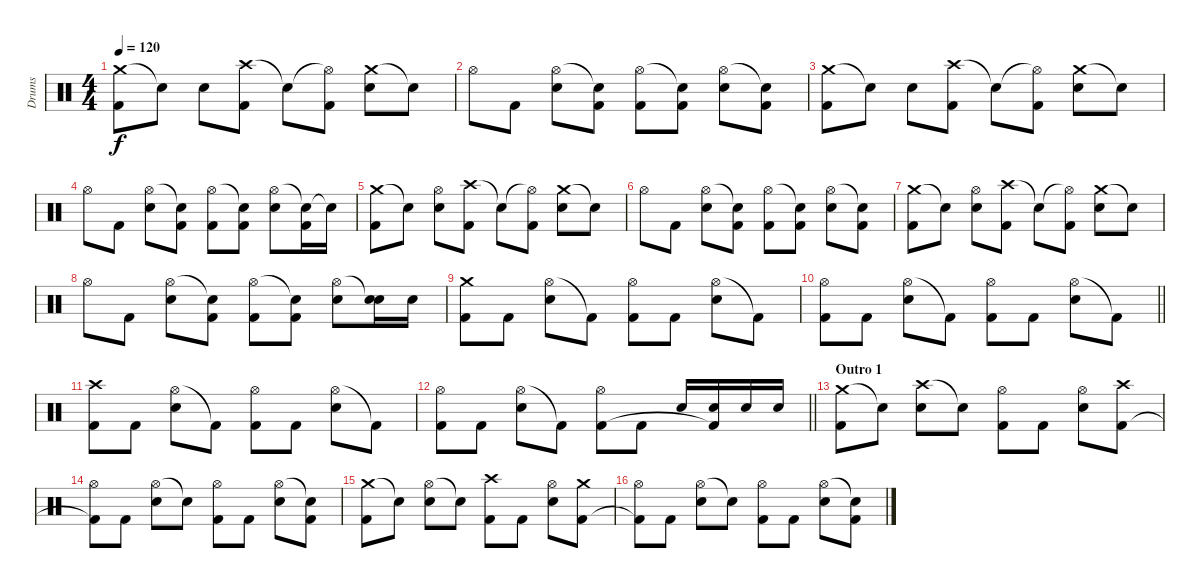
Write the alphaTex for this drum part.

\track ("Drums" "Drums") {instrument percussion}
\staff {score}
\articulation defaults
\ts (4 4)
\tempo 120
\clef neutral
\ks c
("Crash medium (hit)" "Kick (hit) 2").8{dy f} "Snare (hit)"{t}.8 "Snare (hit) 2".8 ("Crash high (hit)" "Kick (hit) 2").8 "Snare (hit)"{t}.8 ("Hi-Hat (open)"{t} "Kick (hit) 2").8 ("Crash medium (hit)" "Snare (hit) 2").8 "Snare (hit)"{t}.8 |
"Hi-Hat (open)".8 "Kick (hit) 2".8 ("Hi-Hat (open)" "Snare (hit) 2").8 ("Snare (hit)"{t} "Kick (hit) 2").8 ("Hi-Hat (open)" "Kick (hit) 2").8 ("Snare (hit)"{t} "Kick (hit) 2").8 ("Hi-Hat (open)" "Snare (hit) 2").8 ("Snare (hit)"{t} "Kick (hit) 2").8 |
("Crash medium (hit)" "Kick (hit) 2").8 "Snare (hit)"{t}.8 "Snare (hit) 2".8 ("Crash high (hit)" "Kick (hit) 2").8 "Snare (hit)"{t}.8 ("Hi-Hat (open)"{t} "Kick (hit) 2").8 ("Crash medium (hit)" "Snare (hit) 2").8 "Snare (hit)"{t}.8 |
"Hi-Hat (open)".8 "Kick (hit) 2".8 ("Hi-Hat (open)" "Snare (hit) 2").8 ("Snare (hit)"{t} "Kick (hit) 2").8 ("Hi-Hat (open)" "Kick (hit) 2").8 ("Snare (hit)"{t} "Kick (hit) 2").8 ("Hi-Hat (open)" "Snare (hit) 2").8 ("Snare (hit)"{t} "Kick (hit) 2").16 "Snare (hit)"{t}.16 |
("Crash medium (hit)" "Kick (hit) 2").8 "Snare (hit)"{t}.8 ("Hi-Hat (open)" "Snare (hit) 2").8 ("Crash high (hit)" "Kick (hit) 2").8 "Snare (hit)"{t}.8 ("Hi-Hat (open)"{t} "Kick (hit) 2").8 ("Crash medium (hit)" "Snare (hit) 2").8 "Snare (hit)"{t}.8 |
"Hi-Hat (open)".8 "Kick (hit) 2".8 ("Hi-Hat (open)" "Snare (hit) 2").8 ("Snare (hit)"{t} "Kick (hit) 2").8 ("Hi-Hat (open)" "Kick (hit) 2").8 ("Snare (hit)"{t} "Kick (hit) 2").8 ("Hi-Hat (open)" "Snare (hit) 2").8 ("Snare (hit)"{t} "Kick (hit) 2").8 |
("Crash medium (hit)" "Kick (hit) 2").8 "Snare (hit)"{t}.8 ("Hi-Hat (open)" "Snare (hit) 2").8 ("Crash high (hit)" "Kick (hit) 2").8 "Snare (hit)"{t}.8 ("Hi-Hat (open)"{t} "Kick (hit) 2").8 ("Crash medium (hit)" "Snare (hit) 2").8 "Snare (hit)"{t}.8 |
"Hi-Hat (open)".8 "Kick (hit) 2".8 ("Hi-Hat (open)" "Snare (hit) 2").8 ("Snare (hit)"{t} "Kick (hit) 2").8 ("Hi-Hat (open)" "Kick (hit) 2").8 ("Snare (hit)"{t} "Kick (hit) 2").8 ("Hi-Hat (open)" "Snare (hit) 2").8 ("Snare (hit)"{t} "Snare (hit) 2").16 "Snare (hit) 2".16 |
("Crash medium (hit)" "Kick (hit) 2").8 "Kick (hit) 2".8 ("Hi-Hat (open)" "Snare (hit) 2").8 "Kick (hit) 2"{t}.8 ("Hi-Hat (open)" "Kick (hit) 2").8 "Kick (hit) 2".8 ("Hi-Hat (open)" "Snare (hit) 2").8 "Kick (hit) 2"{t}.8 |
\barLineRight lightlight
("Hi-Hat (open)" "Kick (hit) 2").8 "Kick (hit) 2".8 ("Hi-Hat (open)" "Snare (hit) 2").8 "Kick (hit) 2"{t}.8 ("Hi-Hat (open)" "Kick (hit) 2").8 "Kick (hit) 2".8 ("Hi-Hat (open)" "Snare (hit) 2").8 "Kick (hit) 2"{t}.8 |
("Crash high (hit)" "Kick (hit) 2").8 "Kick (hit) 2".8 ("Hi-Hat (open)" "Snare (hit) 2").8 "Kick (hit) 2"{t}.8 ("Hi-Hat (open)" "Kick (hit) 2").8 "Kick (hit) 2".8 ("Hi-Hat (open)" "Snare (hit) 2").8 "Kick (hit) 2"{t}.8 |
\barLineRight lightlight
("Hi-Hat (open)" "Kick (hit) 2").8 "Kick (hit) 2".8 ("Hi-Hat (open)" "Snare (hit) 2").8 "Kick (hit) 2"{t}.8 ("Hi-Hat (open)" "Kick (hit) 2").8 "Kick (hit) 2".8 "Snare (hit) 2".16 ("Snare (hit) 2" "Kick (hit) 2"{t}).16 "Snare (hit) 2".16 "Snare (hit) 2".16 |
\section ("" "Outro 1")
("Crash medium (hit)" "Kick (hit) 2").8 "Snare (hit)"{t}.8 ("Crash high (hit)" "Snare (hit) 2").8 "Snare (hit)"{t}.8 ("Hi-Hat (open)" "Kick (hit) 2").8 "Kick (hit) 2".8 ("Hi-Hat (open)" "Snare (hit) 2").8 ("Crash high (hit)" "Kick (hit) 2").8 |
("Hi-Hat (open)" "Kick (hit) 2"{t}).8 "Kick (hit) 2".8 ("Hi-Hat (open)" "Snare (hit) 2").8 "Snare (hit)"{t}.8 ("Hi-Hat (open)" "Kick (hit) 2").8 "Kick (hit) 2".8 ("Hi-Hat (open)" "Snare (hit) 2").8 ("Snare (hit)"{t} "Kick (hit) 2").8 |
("Crash medium (hit)" "Kick (hit) 2").8 "Snare (hit)"{t}.8 ("Hi-Hat (open)" "Snare (hit) 2").8 "Snare (hit)"{t}.8 ("Crash high (hit)" "Kick (hit) 2").8 "Kick (hit) 2".8 ("Hi-Hat (open)" "Snare (hit) 2").8 ("Crash medium (hit)" "Kick (hit) 2").8 |
("Hi-Hat (open)" "Kick (hit) 2"{t}).8 "Kick (hit) 2".8 ("Hi-Hat (open)" "Snare (hit) 2").8 "Snare (hit)"{t}.8 ("Hi-Hat (open)" "Kick (hit) 2").8 "Kick (hit) 2".8 ("Hi-Hat (open)" "Snare (hit) 2").8 ("Snare (hit)"{t} "Kick (hit) 2").8
